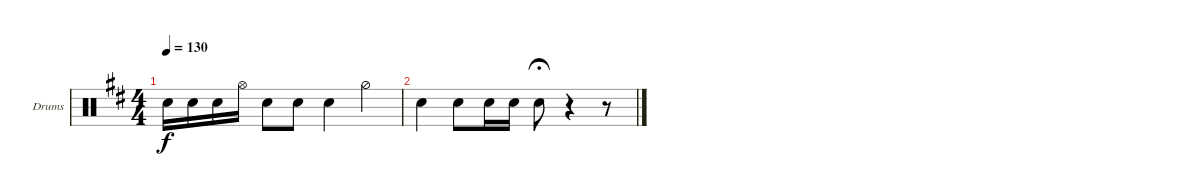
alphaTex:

\defaultSystemsLayout 4
\bracketExtendMode groupsimilarinstruments
\firstSystemTrackNameOrientation horizontal
\otherSystemsTrackNameOrientation horizontal
\track ("Drums" "Drums") {instrument percussion}
\staff {score}
\articulation defaults
\ts (4 4)
\tempo 130
\clef neutral
\scale
1.05044
\ks d "Snare (hit) 2".16{dy f} "Snare (hit) 2".16 "Snare (hit) 2".16 "Hi-Hat (open)".16 "Snare (hit) 2".8 "Snare (hit) 2".8 "Snare (hit) 2".4 "Hi-Hat (half)".4
|
\scale
0.949559 "Snare (hit) 2".4 "Snare (hit) 2".8 "Snare (hit) 2".16 "Snare (hit) 2".16 "Snare (hit) 2".8{fermata (medium 0.4)} r.4 r.8
